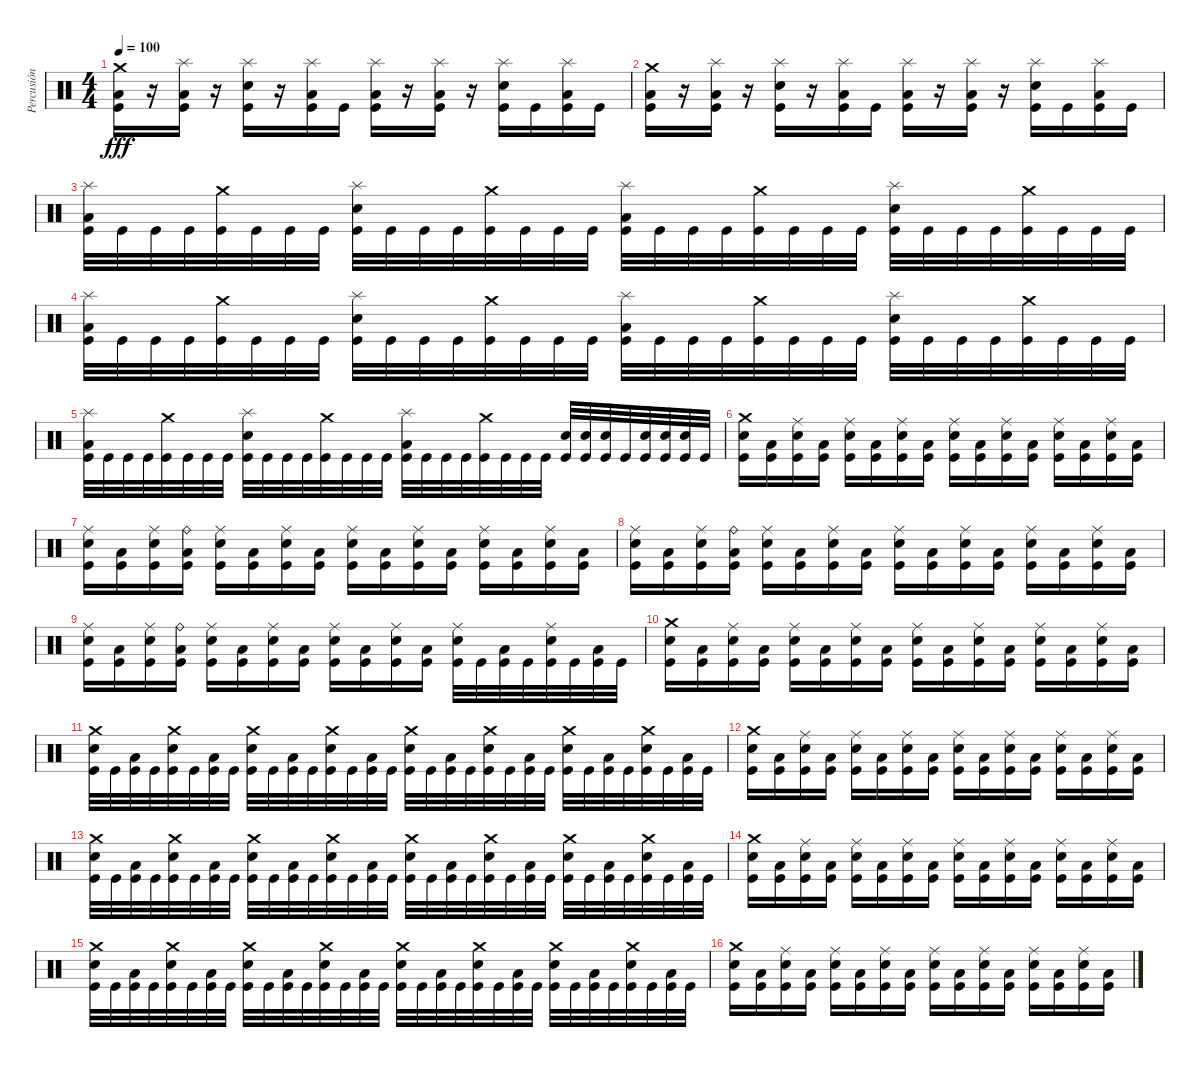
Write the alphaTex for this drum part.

\track ("Percusión" "Percusión") {instrument percussion}
\staff {score}
\articulation defaults
\ts (4 4)
\tempo 100
\clef neutral
\ks c
("Crash medium (hit)" "Low Floor Tom (hit)" "Kick (hit)").16{dy fff} r.16 ("Splash (hit)" "Low Floor Tom (hit)" "Kick (hit)").16 r.16 ("Splash (hit)" "Snare (hit) 2" "Kick (hit)").16 r.16 ("Splash (hit)" "Low Floor Tom (hit)" "Kick (hit)").16 "Kick (hit)".16 ("Splash (hit)" "Low Floor Tom (hit)" "Kick (hit)").16 r.16 ("Splash (hit)" "Low Floor Tom (hit)" "Kick (hit)").16 r.16 ("Splash (hit)" "Snare (hit) 2" "Kick (hit)").16 "Kick (hit)".16 ("Splash (hit)" "Low Floor Tom (hit)" "Kick (hit)").16 "Kick (hit)".16 |
("Crash medium (hit)" "Low Floor Tom (hit)" "Kick (hit)").16 r.16 ("Splash (hit)" "Low Floor Tom (hit)" "Kick (hit)").16 r.16 ("Splash (hit)" "Snare (hit) 2" "Kick (hit)").16 r.16 ("Splash (hit)" "Low Floor Tom (hit)" "Kick (hit)").16 "Kick (hit)".16 ("Splash (hit)" "Low Floor Tom (hit)" "Kick (hit)").16 r.16 ("Splash (hit)" "Low Floor Tom (hit)" "Kick (hit)").16 r.16 ("Splash (hit)" "Snare (hit) 2" "Kick (hit)").16 "Kick (hit)".16 ("Splash (hit)" "Low Floor Tom (hit)" "Kick (hit)").16 "Kick (hit)".16 |
("Splash (hit)" "Low Floor Tom (hit)" "Kick (hit)").32 "Kick (hit)".32 "Kick (hit)".32 "Kick (hit)".32 ("Crash medium (hit)" "Kick (hit)").32 "Kick (hit)".32 "Kick (hit)".32 "Kick (hit)".32 ("Splash (hit)" "Snare (hit) 2" "Kick (hit)").32 "Kick (hit)".32 "Kick (hit)".32 "Kick (hit)".32 ("Crash medium (hit)" "Kick (hit)").32 "Kick (hit)".32 "Kick (hit)".32 "Kick (hit)".32 ("Splash (hit)" "Low Floor Tom (hit)" "Kick (hit)").32 "Kick (hit)".32 "Kick (hit)".32 "Kick (hit)".32 ("Crash medium (hit)" "Kick (hit)").32 "Kick (hit)".32 "Kick (hit)".32 "Kick (hit)".32 ("Splash (hit)" "Snare (hit) 2" "Kick (hit)").32 "Kick (hit)".32 "Kick (hit)".32 "Kick (hit)".32 ("Crash medium (hit)" "Kick (hit)").32 "Kick (hit)".32 "Kick (hit)".32 "Kick (hit)".32 |
("Splash (hit)" "Low Floor Tom (hit)" "Kick (hit)").32 "Kick (hit)".32 "Kick (hit)".32 "Kick (hit)".32 ("Crash medium (hit)" "Kick (hit)").32 "Kick (hit)".32 "Kick (hit)".32 "Kick (hit)".32 ("Splash (hit)" "Snare (hit) 2" "Kick (hit)").32 "Kick (hit)".32 "Kick (hit)".32 "Kick (hit)".32 ("Crash medium (hit)" "Kick (hit)").32 "Kick (hit)".32 "Kick (hit)".32 "Kick (hit)".32 ("Splash (hit)" "Low Floor Tom (hit)" "Kick (hit)").32 "Kick (hit)".32 "Kick (hit)".32 "Kick (hit)".32 ("Crash medium (hit)" "Kick (hit)").32 "Kick (hit)".32 "Kick (hit)".32 "Kick (hit)".32 ("Splash (hit)" "Snare (hit) 2" "Kick (hit)").32 "Kick (hit)".32 "Kick (hit)".32 "Kick (hit)".32 ("Crash medium (hit)" "Kick (hit)").32 "Kick (hit)".32 "Kick (hit)".32 "Kick (hit)".32 |
("Splash (hit)" "Low Floor Tom (hit)" "Kick (hit)").32 "Kick (hit)".32 "Kick (hit)".32 "Kick (hit)".32 ("Crash medium (hit)" "Kick (hit)").32 "Kick (hit)".32 "Kick (hit)".32 "Kick (hit)".32 ("Splash (hit)" "Snare (hit) 2" "Kick (hit)").32 "Kick (hit)".32 "Kick (hit)".32 "Kick (hit)".32 ("Crash medium (hit)" "Kick (hit)").32 "Kick (hit)".32 "Kick (hit)".32 "Kick (hit)".32 ("Splash (hit)" "Low Floor Tom (hit)" "Kick (hit)").32 "Kick (hit)".32 "Kick (hit)".32 "Kick (hit)".32 ("Crash medium (hit)" "Kick (hit)").32 "Kick (hit)".32 "Kick (hit)".32 "Kick (hit)".32 ("Snare (hit) 2" "Kick (hit)").32 ("Snare (hit) 2" "Kick (hit)").32 ("Snare (hit) 2" "Kick (hit)").32 "Kick (hit)".32 ("Snare (hit) 2" "Kick (hit)").32 ("Snare (hit) 2" "Kick (hit)").32 ("Snare (hit) 2" "Kick (hit)").32 "Kick (hit)".32 |
("Crash medium (hit)" "Snare (hit) 2" "Kick (hit)").16 ("Low Floor Tom (hit)" "Kick (hit)").16 ("Ride (middle)" "Snare (hit) 2" "Kick (hit)").16 ("Low Floor Tom (hit)" "Kick (hit)").16 ("Ride (middle)" "Snare (hit) 2" "Kick (hit)").16 ("Low Floor Tom (hit)" "Kick (hit)").16 ("Ride (middle)" "Snare (hit) 2" "Kick (hit)").16 ("Low Floor Tom (hit)" "Kick (hit)").16 ("Ride (middle)" "Snare (hit) 2" "Kick (hit)").16 ("Low Floor Tom (hit)" "Kick (hit)").16 ("Ride (middle)" "Snare (hit) 2" "Kick (hit)").16 ("Low Floor Tom (hit)" "Kick (hit)").16 ("Ride (middle)" "Snare (hit) 2" "Kick (hit)").16 ("Low Floor Tom (hit)" "Kick (hit)").16 ("Ride (middle)" "Snare (hit) 2" "Kick (hit)").16 ("Low Floor Tom (hit)" "Kick (hit)").16 |
("Ride (middle)" "Snare (hit) 2" "Kick (hit)").16 ("Low Floor Tom (hit)" "Kick (hit)").16 ("Ride (middle)" "Snare (hit) 2" "Kick (hit)").16 ("Ride (bell)" "Low Floor Tom (hit)" "Kick (hit)").16 ("Ride (middle)" "Snare (hit) 2" "Kick (hit)").16 ("Low Floor Tom (hit)" "Kick (hit)").16 ("Ride (middle)" "Snare (hit) 2" "Kick (hit)").16 ("Low Floor Tom (hit)" "Kick (hit)").16 ("Ride (middle)" "Snare (hit) 2" "Kick (hit)").16 ("Low Floor Tom (hit)" "Kick (hit)").16 ("Ride (middle)" "Snare (hit) 2" "Kick (hit)").16 ("Low Floor Tom (hit)" "Kick (hit)").16 ("Ride (middle)" "Snare (hit) 2" "Kick (hit)").16 ("Low Floor Tom (hit)" "Kick (hit)").16 ("Ride (middle)" "Snare (hit) 2" "Kick (hit)").16 ("Low Floor Tom (hit)" "Kick (hit)").16 |
("Ride (middle)" "Snare (hit) 2" "Kick (hit)").16 ("Low Floor Tom (hit)" "Kick (hit)").16 ("Ride (middle)" "Snare (hit) 2" "Kick (hit)").16 ("Ride (bell)" "Low Floor Tom (hit)" "Kick (hit)").16 ("Ride (middle)" "Snare (hit) 2" "Kick (hit)").16 ("Low Floor Tom (hit)" "Kick (hit)").16 ("Ride (middle)" "Snare (hit) 2" "Kick (hit)").16 ("Low Floor Tom (hit)" "Kick (hit)").16 ("Ride (middle)" "Snare (hit) 2" "Kick (hit)").16 ("Low Floor Tom (hit)" "Kick (hit)").16 ("Ride (middle)" "Snare (hit) 2" "Kick (hit)").16 ("Low Floor Tom (hit)" "Kick (hit)").16 ("Ride (middle)" "Snare (hit) 2" "Kick (hit)").16 ("Low Floor Tom (hit)" "Kick (hit)").16 ("Ride (middle)" "Snare (hit) 2" "Kick (hit)").16 ("Low Floor Tom (hit)" "Kick (hit)").16 |
("Ride (middle)" "Snare (hit) 2" "Kick (hit)").16 ("Low Floor Tom (hit)" "Kick (hit)").16 ("Ride (middle)" "Snare (hit) 2" "Kick (hit)").16 ("Ride (bell)" "Low Floor Tom (hit)" "Kick (hit)").16 ("Ride (middle)" "Snare (hit) 2" "Kick (hit)").16 ("Low Floor Tom (hit)" "Kick (hit)").16 ("Ride (middle)" "Snare (hit) 2" "Kick (hit)").16 ("Low Floor Tom (hit)" "Kick (hit)").16 ("Ride (middle)" "Snare (hit) 2" "Kick (hit)").16 ("Low Floor Tom (hit)" "Kick (hit)").16 ("Ride (middle)" "Snare (hit) 2" "Kick (hit)").16 ("Low Floor Tom (hit)" "Kick (hit)").16 ("Ride (middle)" "Snare (hit) 2" "Kick (hit)").32 "Kick (hit)".32 ("Low Floor Tom (hit)" "Kick (hit)").32 "Kick (hit)".32 ("Ride (middle)" "Snare (hit) 2" "Kick (hit)").32 "Kick (hit)".32 ("Low Floor Tom (hit)" "Kick (hit)").32 "Kick (hit)".32 |
("Crash medium (hit)" "Snare (hit) 2" "Kick (hit)").16 ("Low Floor Tom (hit)" "Kick (hit)").16 ("Ride (middle)" "Snare (hit) 2" "Kick (hit)").16 ("Low Floor Tom (hit)" "Kick (hit)").16 ("Ride (middle)" "Snare (hit) 2" "Kick (hit)").16 ("Low Floor Tom (hit)" "Kick (hit)").16 ("Ride (middle)" "Snare (hit) 2" "Kick (hit)").16 ("Low Floor Tom (hit)" "Kick (hit)").16 ("Ride (middle)" "Snare (hit) 2" "Kick (hit)").16 ("Low Floor Tom (hit)" "Kick (hit)").16 ("Ride (middle)" "Snare (hit) 2" "Kick (hit)").16 ("Low Floor Tom (hit)" "Kick (hit)").16 ("Ride (middle)" "Snare (hit) 2" "Kick (hit)").16 ("Low Floor Tom (hit)" "Kick (hit)").16 ("Ride (middle)" "Snare (hit) 2" "Kick (hit)").16 ("Low Floor Tom (hit)" "Kick (hit)").16 |
("Crash medium (hit)" "Snare (hit) 2" "Kick (hit)").32 "Kick (hit)".32 ("Low Floor Tom (hit)" "Kick (hit)").32 "Kick (hit)".32 ("Crash medium (hit)" "Snare (hit) 2" "Kick (hit)").32 "Kick (hit)".32 ("Low Floor Tom (hit)" "Kick (hit)").32 "Kick (hit)".32 ("Crash medium (hit)" "Snare (hit) 2" "Kick (hit)").32 "Kick (hit)".32 ("Low Floor Tom (hit)" "Kick (hit)").32 "Kick (hit)".32 ("Crash medium (hit)" "Snare (hit) 2" "Kick (hit)").32 "Kick (hit)".32 ("Low Floor Tom (hit)" "Kick (hit)").32 "Kick (hit)".32 ("Crash medium (hit)" "Snare (hit) 2" "Kick (hit)").32 "Kick (hit)".32 ("Low Floor Tom (hit)" "Kick (hit)").32 "Kick (hit)".32 ("Crash medium (hit)" "Snare (hit) 2" "Kick (hit)").32 "Kick (hit)".32 ("Low Floor Tom (hit)" "Kick (hit)").32 "Kick (hit)".32 ("Crash medium (hit)" "Snare (hit) 2" "Kick (hit)").32 "Kick (hit)".32 ("Low Floor Tom (hit)" "Kick (hit)").32 "Kick (hit)".32 ("Crash medium (hit)" "Snare (hit) 2" "Kick (hit)").32 "Kick (hit)".32 ("Low Floor Tom (hit)" "Kick (hit)").32 "Kick (hit)".32 |
("Crash medium (hit)" "Snare (hit) 2" "Kick (hit)").16 ("Low Floor Tom (hit)" "Kick (hit)").16 ("Ride (middle)" "Snare (hit) 2" "Kick (hit)").16 ("Low Floor Tom (hit)" "Kick (hit)").16 ("Ride (middle)" "Snare (hit) 2" "Kick (hit)").16 ("Low Floor Tom (hit)" "Kick (hit)").16 ("Ride (middle)" "Snare (hit) 2" "Kick (hit)").16 ("Low Floor Tom (hit)" "Kick (hit)").16 ("Ride (middle)" "Snare (hit) 2" "Kick (hit)").16 ("Low Floor Tom (hit)" "Kick (hit)").16 ("Ride (middle)" "Snare (hit) 2" "Kick (hit)").16 ("Low Floor Tom (hit)" "Kick (hit)").16 ("Ride (middle)" "Snare (hit) 2" "Kick (hit)").16 ("Low Floor Tom (hit)" "Kick (hit)").16 ("Ride (middle)" "Snare (hit) 2" "Kick (hit)").16 ("Low Floor Tom (hit)" "Kick (hit)").16 |
("Crash medium (hit)" "Snare (hit) 2" "Kick (hit)").32 "Kick (hit)".32 ("Low Floor Tom (hit)" "Kick (hit)").32 "Kick (hit)".32 ("Crash medium (hit)" "Snare (hit) 2" "Kick (hit)").32 "Kick (hit)".32 ("Low Floor Tom (hit)" "Kick (hit)").32 "Kick (hit)".32 ("Crash medium (hit)" "Snare (hit) 2" "Kick (hit)").32 "Kick (hit)".32 ("Low Floor Tom (hit)" "Kick (hit)").32 "Kick (hit)".32 ("Crash medium (hit)" "Snare (hit) 2" "Kick (hit)").32 "Kick (hit)".32 ("Low Floor Tom (hit)" "Kick (hit)").32 "Kick (hit)".32 ("Crash medium (hit)" "Snare (hit) 2" "Kick (hit)").32 "Kick (hit)".32 ("Low Floor Tom (hit)" "Kick (hit)").32 "Kick (hit)".32 ("Crash medium (hit)" "Snare (hit) 2" "Kick (hit)").32 "Kick (hit)".32 ("Low Floor Tom (hit)" "Kick (hit)").32 "Kick (hit)".32 ("Crash medium (hit)" "Snare (hit) 2" "Kick (hit)").32 "Kick (hit)".32 ("Low Floor Tom (hit)" "Kick (hit)").32 "Kick (hit)".32 ("Crash medium (hit)" "Snare (hit) 2" "Kick (hit)").32 "Kick (hit)".32 ("Low Floor Tom (hit)" "Kick (hit)").32 "Kick (hit)".32 |
("Crash medium (hit)" "Snare (hit) 2" "Kick (hit)").16 ("Low Floor Tom (hit)" "Kick (hit)").16 ("Ride (middle)" "Snare (hit) 2" "Kick (hit)").16 ("Low Floor Tom (hit)" "Kick (hit)").16 ("Ride (middle)" "Snare (hit) 2" "Kick (hit)").16 ("Low Floor Tom (hit)" "Kick (hit)").16 ("Ride (middle)" "Snare (hit) 2" "Kick (hit)").16 ("Low Floor Tom (hit)" "Kick (hit)").16 ("Ride (middle)" "Snare (hit) 2" "Kick (hit)").16 ("Low Floor Tom (hit)" "Kick (hit)").16 ("Ride (middle)" "Snare (hit) 2" "Kick (hit)").16 ("Low Floor Tom (hit)" "Kick (hit)").16 ("Ride (middle)" "Snare (hit) 2" "Kick (hit)").16 ("Low Floor Tom (hit)" "Kick (hit)").16 ("Ride (middle)" "Snare (hit) 2" "Kick (hit)").16 ("Low Floor Tom (hit)" "Kick (hit)").16 |
("Crash medium (hit)" "Snare (hit) 2" "Kick (hit)").32 "Kick (hit)".32 ("Low Floor Tom (hit)" "Kick (hit)").32 "Kick (hit)".32 ("Crash medium (hit)" "Snare (hit) 2" "Kick (hit)").32 "Kick (hit)".32 ("Low Floor Tom (hit)" "Kick (hit)").32 "Kick (hit)".32 ("Crash medium (hit)" "Snare (hit) 2" "Kick (hit)").32 "Kick (hit)".32 ("Low Floor Tom (hit)" "Kick (hit)").32 "Kick (hit)".32 ("Crash medium (hit)" "Snare (hit) 2" "Kick (hit)").32 "Kick (hit)".32 ("Low Floor Tom (hit)" "Kick (hit)").32 "Kick (hit)".32 ("Crash medium (hit)" "Snare (hit) 2" "Kick (hit)").32 "Kick (hit)".32 ("Low Floor Tom (hit)" "Kick (hit)").32 "Kick (hit)".32 ("Crash medium (hit)" "Snare (hit) 2" "Kick (hit)").32 "Kick (hit)".32 ("Low Floor Tom (hit)" "Kick (hit)").32 "Kick (hit)".32 ("Crash medium (hit)" "Snare (hit) 2" "Kick (hit)").32 "Kick (hit)".32 ("Low Floor Tom (hit)" "Kick (hit)").32 "Kick (hit)".32 ("Crash medium (hit)" "Snare (hit) 2" "Kick (hit)").32 "Kick (hit)".32 ("Low Floor Tom (hit)" "Kick (hit)").32 "Kick (hit)".32 |
("Crash medium (hit)" "Snare (hit) 2" "Kick (hit)").16 ("Low Floor Tom (hit)" "Kick (hit)").16 ("Ride (middle)" "Snare (hit) 2" "Kick (hit)").16 ("Low Floor Tom (hit)" "Kick (hit)").16 ("Ride (middle)" "Snare (hit) 2" "Kick (hit)").16 ("Low Floor Tom (hit)" "Kick (hit)").16 ("Ride (middle)" "Snare (hit) 2" "Kick (hit)").16 ("Low Floor Tom (hit)" "Kick (hit)").16 ("Ride (middle)" "Snare (hit) 2" "Kick (hit)").16 ("Low Floor Tom (hit)" "Kick (hit)").16 ("Ride (middle)" "Snare (hit) 2" "Kick (hit)").16 ("Low Floor Tom (hit)" "Kick (hit)").16 ("Ride (middle)" "Snare (hit) 2" "Kick (hit)").16 ("Low Floor Tom (hit)" "Kick (hit)").16 ("Ride (middle)" "Snare (hit) 2" "Kick (hit)").16 ("Low Floor Tom (hit)" "Kick (hit)").16
